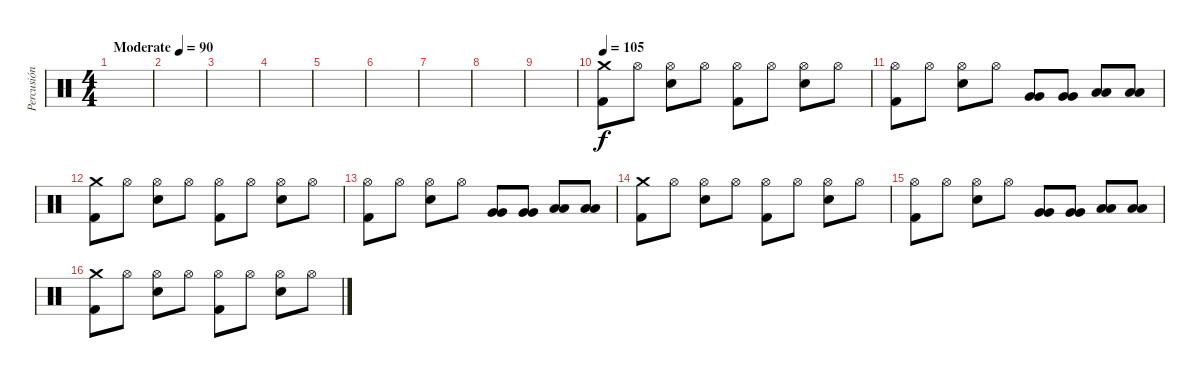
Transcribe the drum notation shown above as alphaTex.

\track ("Percusión" "Percusión") {instrument percussion}
\staff {score}
\articulation defaults
\ts (4 4)
\tempo (90 "Moderate")
\clef neutral
\ks c
|
|
|
|
|
|
|
|
|
\tempo 105
("Crash medium (hit)" "Kick (hit) 2").8 "Hi-Hat (open)".8 ("Hi-Hat (open)" "Electric Snare (hit)").8 "Hi-Hat (open)".8 ("Hi-Hat (open)" "Kick (hit) 2").8 "Hi-Hat (open)".8 ("Hi-Hat (open)" "Electric Snare (hit)").8 "Hi-Hat (open)".8 |
("Hi-Hat (open)" "Kick (hit) 2").8 "Hi-Hat (open)".8 ("Hi-Hat (open)" "Electric Snare (hit)").8 "Hi-Hat (open)".8 ("Very Low Tom (hit)" "Very Low Tom (hit)").8 ("Very Low Tom (hit)" "Very Low Tom (hit)").8 ("Low Floor Tom (hit)" "Low Floor Tom (hit)").8 ("Low Floor Tom (hit)" "Low Floor Tom (hit)").8 |
("Crash medium (hit)" "Kick (hit) 2").8 "Hi-Hat (open)".8 ("Hi-Hat (open)" "Electric Snare (hit)").8 "Hi-Hat (open)".8 ("Hi-Hat (open)" "Kick (hit) 2").8 "Hi-Hat (open)".8 ("Hi-Hat (open)" "Electric Snare (hit)").8 "Hi-Hat (open)".8 |
("Hi-Hat (open)" "Kick (hit) 2").8 "Hi-Hat (open)".8 ("Hi-Hat (open)" "Electric Snare (hit)").8 "Hi-Hat (open)".8 ("Very Low Tom (hit)" "Very Low Tom (hit)").8 ("Very Low Tom (hit)" "Very Low Tom (hit)").8 ("Low Floor Tom (hit)" "Low Floor Tom (hit)").8 ("Low Floor Tom (hit)" "Low Floor Tom (hit)").8 |
("Crash medium (hit)" "Kick (hit) 2").8 "Hi-Hat (open)".8 ("Hi-Hat (open)" "Electric Snare (hit)").8 "Hi-Hat (open)".8 ("Hi-Hat (open)" "Kick (hit) 2").8 "Hi-Hat (open)".8 ("Hi-Hat (open)" "Electric Snare (hit)").8 "Hi-Hat (open)".8 |
("Hi-Hat (open)" "Kick (hit) 2").8 "Hi-Hat (open)".8 ("Hi-Hat (open)" "Electric Snare (hit)").8 "Hi-Hat (open)".8 ("Very Low Tom (hit)" "Very Low Tom (hit)").8 ("Very Low Tom (hit)" "Very Low Tom (hit)").8 ("Low Floor Tom (hit)" "Low Floor Tom (hit)").8 ("Low Floor Tom (hit)" "Low Floor Tom (hit)").8 |
("Crash medium (hit)" "Kick (hit) 2").8 "Hi-Hat (open)".8 ("Hi-Hat (open)" "Electric Snare (hit)").8 "Hi-Hat (open)".8 ("Hi-Hat (open)" "Kick (hit) 2").8 "Hi-Hat (open)".8 ("Hi-Hat (open)" "Electric Snare (hit)").8 "Hi-Hat (open)".8
